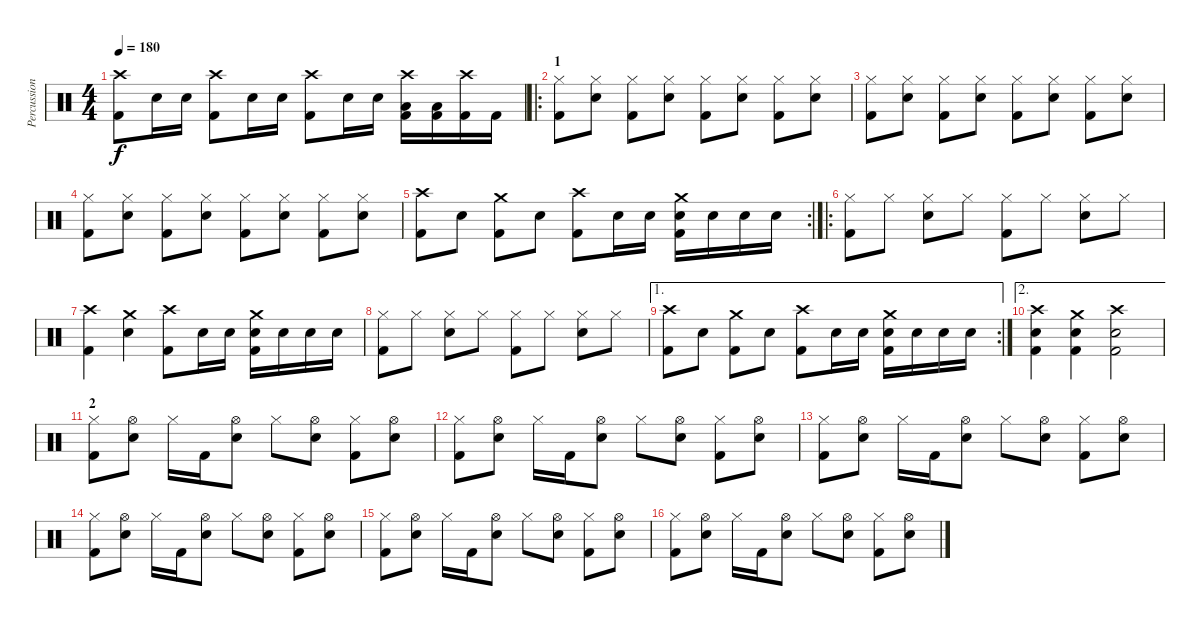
\track ("Percussions" "Percussion") {instrument percussion}
\staff {score}
\articulation defaults
\ts (4 4)
\tempo 180
\clef neutral
\ks c
("Crash high (hit)" "Kick (hit) 2").8{dy f} "Snare (hit) 2".16 "Snare (hit) 2".16 ("Crash high (hit)" "Kick (hit) 2").8 "Snare (hit) 2".16 "Snare (hit) 2".16 ("Crash high (hit)" "Kick (hit) 2").8 "Snare (hit) 2".16 "Snare (hit) 2".16 ("Crash high (hit)" "Low Tom (hit)" "Kick (hit) 2").16 ("Low Tom (hit)" "Kick (hit) 2").16 ("Crash high (hit)" "Kick (hit) 2").16 "Kick (hit) 2".16 |
\ro
\section ("" "1")
("Hi-Hat (closed)" "Kick (hit) 2").8 ("Hi-Hat (closed)" "Snare (hit) 2").8 ("Hi-Hat (closed)" "Kick (hit) 2").8 ("Hi-Hat (closed)" "Snare (hit) 2").8 ("Hi-Hat (closed)" "Kick (hit) 2").8 ("Hi-Hat (closed)" "Snare (hit) 2").8 ("Hi-Hat (closed)" "Kick (hit) 2").8 ("Hi-Hat (closed)" "Snare (hit) 2").8 |
("Hi-Hat (closed)" "Kick (hit) 2").8 ("Hi-Hat (closed)" "Snare (hit) 2").8 ("Hi-Hat (closed)" "Kick (hit) 2").8 ("Hi-Hat (closed)" "Snare (hit) 2").8 ("Hi-Hat (closed)" "Kick (hit) 2").8 ("Hi-Hat (closed)" "Snare (hit) 2").8 ("Hi-Hat (closed)" "Kick (hit) 2").8 ("Hi-Hat (closed)" "Snare (hit) 2").8 |
("Hi-Hat (closed)" "Kick (hit) 2").8 ("Hi-Hat (closed)" "Snare (hit) 2").8 ("Hi-Hat (closed)" "Kick (hit) 2").8 ("Hi-Hat (closed)" "Snare (hit) 2").8 ("Hi-Hat (closed)" "Kick (hit) 2").8 ("Hi-Hat (closed)" "Snare (hit) 2").8 ("Hi-Hat (closed)" "Kick (hit) 2").8 ("Hi-Hat (closed)" "Snare (hit) 2").8 |
\rc 2
("Crash high (hit)" "Kick (hit) 2").8 "Snare (hit) 2".8 ("Crash medium (hit)" "Kick (hit) 2").8 "Snare (hit) 2".8 ("Crash high (hit)" "Kick (hit) 2").8 "Snare (hit) 2".16 "Snare (hit) 2".16 ("Crash medium (hit)" "Snare (hit) 2" "Kick (hit) 2").16 "Snare (hit) 2".16 "Snare (hit) 2".16 "Snare (hit) 2".16 |
\ro
("Hi-Hat (closed)" "Kick (hit) 2").8 "Hi-Hat (closed)".8 ("Hi-Hat (closed)" "Snare (hit) 2").8 "Hi-Hat (closed)".8 ("Hi-Hat (closed)" "Kick (hit) 2").8 "Hi-Hat (closed)".8 ("Hi-Hat (closed)" "Snare (hit) 2").8 "Hi-Hat (closed)".8 |
("Crash high (hit)" "Kick (hit) 2").4 ("Crash medium (hit)" "Snare (hit) 2").4 ("Crash high (hit)" "Kick (hit) 2").8 "Snare (hit) 2".16 "Snare (hit) 2".16 ("Crash medium (hit)" "Snare (hit) 2" "Kick (hit) 2").16 "Snare (hit) 2".16 "Snare (hit) 2".16 "Snare (hit) 2".16 |
("Hi-Hat (closed)" "Kick (hit) 2").8 "Hi-Hat (closed)".8 ("Hi-Hat (closed)" "Snare (hit) 2").8 "Hi-Hat (closed)".8 ("Hi-Hat (closed)" "Kick (hit) 2").8 "Hi-Hat (closed)".8 ("Hi-Hat (closed)" "Snare (hit) 2").8 "Hi-Hat (closed)".8 |
\ae 1
\rc 2
("Crash high (hit)" "Kick (hit) 2").8 "Snare (hit) 2".8 ("Crash medium (hit)" "Kick (hit) 2").8 "Snare (hit) 2".8 ("Crash high (hit)" "Kick (hit) 2").8 "Snare (hit) 2".16 "Snare (hit) 2".16 ("Crash medium (hit)" "Snare (hit) 2" "Kick (hit) 2").16 "Snare (hit) 2".16 "Snare (hit) 2".16 "Snare (hit) 2".16 |
\ae 2
("Crash high (hit)" "Snare (hit) 2" "Kick (hit) 2").4 ("Crash medium (hit)" "Snare (hit) 2" "Kick (hit) 2").4 ("Crash high (hit)" "Snare (hit) 2" "Kick (hit) 2").2 |
\section ("" "2")
("Hi-Hat (closed)" "Kick (hit) 2").8 ("Hi-Hat (open)" "Snare (hit) 2").8 "Hi-Hat (closed)".16 "Kick (hit) 2".16 ("Hi-Hat (open)" "Snare (hit) 2").8 "Hi-Hat (closed)".8 ("Hi-Hat (open)" "Snare (hit) 2").8 ("Hi-Hat (closed)" "Kick (hit) 2").8 ("Hi-Hat (open)" "Snare (hit) 2").8 |
("Hi-Hat (closed)" "Kick (hit) 2").8 ("Hi-Hat (open)" "Snare (hit) 2").8 "Hi-Hat (closed)".16 "Kick (hit) 2".16 ("Hi-Hat (open)" "Snare (hit) 2").8 "Hi-Hat (closed)".8 ("Hi-Hat (open)" "Snare (hit) 2").8 ("Hi-Hat (closed)" "Kick (hit) 2").8 ("Hi-Hat (open)" "Snare (hit) 2").8 |
("Hi-Hat (closed)" "Kick (hit) 2").8 ("Hi-Hat (open)" "Snare (hit) 2").8 "Hi-Hat (closed)".16 "Kick (hit) 2".16 ("Hi-Hat (open)" "Snare (hit) 2").8 "Hi-Hat (closed)".8 ("Hi-Hat (open)" "Snare (hit) 2").8 ("Hi-Hat (closed)" "Kick (hit) 2").8 ("Hi-Hat (open)" "Snare (hit) 2").8 |
("Hi-Hat (closed)" "Kick (hit) 2").8 ("Hi-Hat (open)" "Snare (hit) 2").8 "Hi-Hat (closed)".16 "Kick (hit) 2".16 ("Hi-Hat (open)" "Snare (hit) 2").8 "Hi-Hat (closed)".8 ("Hi-Hat (open)" "Snare (hit) 2").8 ("Hi-Hat (closed)" "Kick (hit) 2").8 ("Hi-Hat (open)" "Snare (hit) 2").8 |
("Hi-Hat (closed)" "Kick (hit) 2").8 ("Hi-Hat (open)" "Snare (hit) 2").8 "Hi-Hat (closed)".16 "Kick (hit) 2".16 ("Hi-Hat (open)" "Snare (hit) 2").8 "Hi-Hat (closed)".8 ("Hi-Hat (open)" "Snare (hit) 2").8 ("Hi-Hat (closed)" "Kick (hit) 2").8 ("Hi-Hat (open)" "Snare (hit) 2").8 |
("Hi-Hat (closed)" "Kick (hit) 2").8 ("Hi-Hat (open)" "Snare (hit) 2").8 "Hi-Hat (closed)".16 "Kick (hit) 2".16 ("Hi-Hat (open)" "Snare (hit) 2").8 "Hi-Hat (closed)".8 ("Hi-Hat (open)" "Snare (hit) 2").8 ("Hi-Hat (closed)" "Kick (hit) 2").8 ("Hi-Hat (open)" "Snare (hit) 2").8
